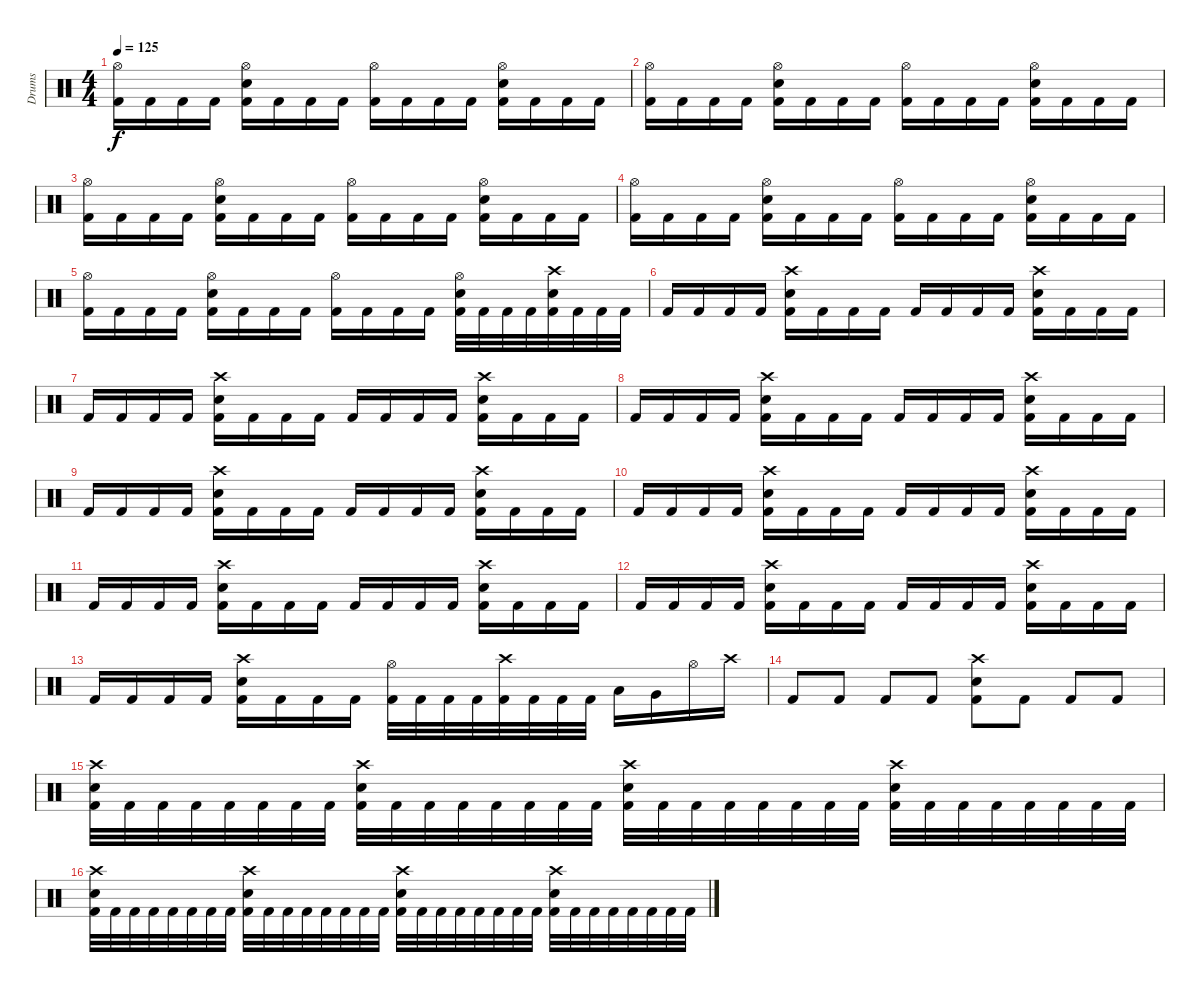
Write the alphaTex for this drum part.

\track ("Drums" "Drums") {instrument percussion}
\staff {score}
\articulation defaults
\ts (4 4)
\tempo 125
\clef neutral
\ks c
("Hi-Hat (open)" "Kick (hit) 2").16{dy f} "Kick (hit) 2".16 "Kick (hit) 2".16 "Kick (hit) 2".16 ("Hi-Hat (open)" "Kick (hit) 2" "Snare (hit) 2").16 "Kick (hit) 2".16 "Kick (hit) 2".16 "Kick (hit) 2".16 ("Hi-Hat (open)" "Kick (hit) 2").16 "Kick (hit) 2".16 "Kick (hit) 2".16 "Kick (hit) 2".16 ("Hi-Hat (open)" "Kick (hit) 2" "Snare (hit) 2").16 "Kick (hit) 2".16 "Kick (hit) 2".16 "Kick (hit) 2".16 |
("Hi-Hat (open)" "Kick (hit) 2").16 "Kick (hit) 2".16 "Kick (hit) 2".16 "Kick (hit) 2".16 ("Hi-Hat (open)" "Kick (hit) 2" "Snare (hit) 2").16 "Kick (hit) 2".16 "Kick (hit) 2".16 "Kick (hit) 2".16 ("Hi-Hat (open)" "Kick (hit) 2").16 "Kick (hit) 2".16 "Kick (hit) 2".16 "Kick (hit) 2".16 ("Hi-Hat (open)" "Kick (hit) 2" "Snare (hit) 2").16 "Kick (hit) 2".16 "Kick (hit) 2".16 "Kick (hit) 2".16 |
("Hi-Hat (open)" "Kick (hit) 2").16 "Kick (hit) 2".16 "Kick (hit) 2".16 "Kick (hit) 2".16 ("Hi-Hat (open)" "Kick (hit) 2" "Snare (hit) 2").16 "Kick (hit) 2".16 "Kick (hit) 2".16 "Kick (hit) 2".16 ("Hi-Hat (open)" "Kick (hit) 2").16 "Kick (hit) 2".16 "Kick (hit) 2".16 "Kick (hit) 2".16 ("Hi-Hat (open)" "Kick (hit) 2" "Snare (hit) 2").16 "Kick (hit) 2".16 "Kick (hit) 2".16 "Kick (hit) 2".16 |
("Hi-Hat (open)" "Kick (hit) 2").16 "Kick (hit) 2".16 "Kick (hit) 2".16 "Kick (hit) 2".16 ("Hi-Hat (open)" "Kick (hit) 2" "Snare (hit) 2").16 "Kick (hit) 2".16 "Kick (hit) 2".16 "Kick (hit) 2".16 ("Hi-Hat (open)" "Kick (hit) 2").16 "Kick (hit) 2".16 "Kick (hit) 2".16 "Kick (hit) 2".16 ("Hi-Hat (open)" "Kick (hit) 2" "Snare (hit) 2").16 "Kick (hit) 2".16 "Kick (hit) 2".16 "Kick (hit) 2".16 |
("Hi-Hat (open)" "Kick (hit) 2").16 "Kick (hit) 2".16 "Kick (hit) 2".16 "Kick (hit) 2".16 ("Hi-Hat (open)" "Kick (hit) 2" "Snare (hit) 2").16 "Kick (hit) 2".16 "Kick (hit) 2".16 "Kick (hit) 2".16 ("Hi-Hat (open)" "Kick (hit) 2").16 "Kick (hit) 2".16 "Kick (hit) 2".16 "Kick (hit) 2".16 ("Hi-Hat (open)" "Kick (hit) 2" "Snare (hit) 2").32 "Kick (hit) 2".32 "Kick (hit) 2".32 "Kick (hit) 2".32 ("Crash high (hit)" "Kick (hit) 2" "Snare (hit) 2").32 "Kick (hit) 2".32 "Kick (hit) 2".32 "Kick (hit) 2".32 |
"Kick (hit) 2".16 "Kick (hit) 2".16 "Kick (hit) 2".16 "Kick (hit) 2".16 ("Crash high (hit)" "Kick (hit) 2" "Snare (hit) 2").16 "Kick (hit) 2".16 "Kick (hit) 2".16 "Kick (hit) 2".16 "Kick (hit) 2".16 "Kick (hit) 2".16 "Kick (hit) 2".16 "Kick (hit) 2".16 ("Crash high (hit)" "Kick (hit) 2" "Snare (hit) 2").16 "Kick (hit) 2".16 "Kick (hit) 2".16 "Kick (hit) 2".16 |
"Kick (hit) 2".16 "Kick (hit) 2".16 "Kick (hit) 2".16 "Kick (hit) 2".16 ("Crash high (hit)" "Kick (hit) 2" "Snare (hit) 2").16 "Kick (hit) 2".16 "Kick (hit) 2".16 "Kick (hit) 2".16 "Kick (hit) 2".16 "Kick (hit) 2".16 "Kick (hit) 2".16 "Kick (hit) 2".16 ("Crash high (hit)" "Kick (hit) 2" "Snare (hit) 2").16 "Kick (hit) 2".16 "Kick (hit) 2".16 "Kick (hit) 2".16 |
"Kick (hit) 2".16 "Kick (hit) 2".16 "Kick (hit) 2".16 "Kick (hit) 2".16 ("Crash high (hit)" "Kick (hit) 2" "Snare (hit) 2").16 "Kick (hit) 2".16 "Kick (hit) 2".16 "Kick (hit) 2".16 "Kick (hit) 2".16 "Kick (hit) 2".16 "Kick (hit) 2".16 "Kick (hit) 2".16 ("Crash high (hit)" "Kick (hit) 2" "Snare (hit) 2").16 "Kick (hit) 2".16 "Kick (hit) 2".16 "Kick (hit) 2".16 |
"Kick (hit) 2".16 "Kick (hit) 2".16 "Kick (hit) 2".16 "Kick (hit) 2".16 ("Crash high (hit)" "Kick (hit) 2" "Snare (hit) 2").16 "Kick (hit) 2".16 "Kick (hit) 2".16 "Kick (hit) 2".16 "Kick (hit) 2".16 "Kick (hit) 2".16 "Kick (hit) 2".16 "Kick (hit) 2".16 ("Crash high (hit)" "Kick (hit) 2" "Snare (hit) 2").16 "Kick (hit) 2".16 "Kick (hit) 2".16 "Kick (hit) 2".16 |
"Kick (hit) 2".16 "Kick (hit) 2".16 "Kick (hit) 2".16 "Kick (hit) 2".16 ("Crash high (hit)" "Kick (hit) 2" "Snare (hit) 2").16 "Kick (hit) 2".16 "Kick (hit) 2".16 "Kick (hit) 2".16 "Kick (hit) 2".16 "Kick (hit) 2".16 "Kick (hit) 2".16 "Kick (hit) 2".16 ("Crash high (hit)" "Kick (hit) 2" "Snare (hit) 2").16 "Kick (hit) 2".16 "Kick (hit) 2".16 "Kick (hit) 2".16 |
"Kick (hit) 2".16 "Kick (hit) 2".16 "Kick (hit) 2".16 "Kick (hit) 2".16 ("Crash high (hit)" "Kick (hit) 2" "Snare (hit) 2").16 "Kick (hit) 2".16 "Kick (hit) 2".16 "Kick (hit) 2".16 "Kick (hit) 2".16 "Kick (hit) 2".16 "Kick (hit) 2".16 "Kick (hit) 2".16 ("Crash high (hit)" "Kick (hit) 2" "Snare (hit) 2").16 "Kick (hit) 2".16 "Kick (hit) 2".16 "Kick (hit) 2".16 |
"Kick (hit) 2".16 "Kick (hit) 2".16 "Kick (hit) 2".16 "Kick (hit) 2".16 ("Crash high (hit)" "Kick (hit) 2" "Snare (hit) 2").16 "Kick (hit) 2".16 "Kick (hit) 2".16 "Kick (hit) 2".16 "Kick (hit) 2".16 "Kick (hit) 2".16 "Kick (hit) 2".16 "Kick (hit) 2".16 ("Crash high (hit)" "Kick (hit) 2" "Snare (hit) 2").16 "Kick (hit) 2".16 "Kick (hit) 2".16 "Kick (hit) 2".16 |
"Kick (hit) 2".16 "Kick (hit) 2".16 "Kick (hit) 2".16 "Kick (hit) 2".16 ("Crash high (hit)" "Kick (hit) 2" "Snare (hit) 2").16 "Kick (hit) 2".16 "Kick (hit) 2".16 "Kick (hit) 2".16 ("Hi-Hat (open)" "Kick (hit) 2").32 "Kick (hit) 2".32 "Kick (hit) 2".32 "Kick (hit) 2".32 ("Crash high (hit)" "Kick (hit) 2").32 "Kick (hit) 2".32 "Kick (hit) 2".32 "Kick (hit) 2".32 "Low Tom (hit)".16 "Very Low Tom (hit)".16 "Hi-Hat (open)".16 "Crash high (hit)".16 |
"Kick (hit) 2".8 "Kick (hit) 2".8 "Kick (hit) 2".8 "Kick (hit) 2".8 ("Kick (hit) 2" "Crash high (hit)" "Snare (hit) 2").8 "Kick (hit) 2".8 "Kick (hit) 2".8 "Kick (hit) 2".8 |
("Kick (hit) 2" "Crash high (hit)" "Snare (hit) 2").32 "Kick (hit) 2".32 "Kick (hit) 2".32 "Kick (hit) 2".32 "Kick (hit) 2".32 "Kick (hit) 2".32 "Kick (hit) 2".32 "Kick (hit) 2".32 ("Kick (hit) 2" "Crash high (hit)" "Snare (hit) 2").32 "Kick (hit) 2".32 "Kick (hit) 2".32 "Kick (hit) 2".32 "Kick (hit) 2".32 "Kick (hit) 2".32 "Kick (hit) 2".32 "Kick (hit) 2".32 ("Kick (hit) 2" "Crash high (hit)" "Snare (hit) 2").32 "Kick (hit) 2".32 "Kick (hit) 2".32 "Kick (hit) 2".32 "Kick (hit) 2".32 "Kick (hit) 2".32 "Kick (hit) 2".32 "Kick (hit) 2".32 ("Kick (hit) 2" "Crash high (hit)" "Snare (hit) 2").32 "Kick (hit) 2".32 "Kick (hit) 2".32 "Kick (hit) 2".32 "Kick (hit) 2".32 "Kick (hit) 2".32 "Kick (hit) 2".32 "Kick (hit) 2".32 |
("Kick (hit) 2" "Crash high (hit)" "Snare (hit) 2").32 "Kick (hit) 2".32 "Kick (hit) 2".32 "Kick (hit) 2".32 "Kick (hit) 2".32 "Kick (hit) 2".32 "Kick (hit) 2".32 "Kick (hit) 2".32 ("Kick (hit) 2" "Crash high (hit)" "Snare (hit) 2").32 "Kick (hit) 2".32 "Kick (hit) 2".32 "Kick (hit) 2".32 "Kick (hit) 2".32 "Kick (hit) 2".32 "Kick (hit) 2".32 "Kick (hit) 2".32 ("Kick (hit) 2" "Crash high (hit)" "Snare (hit) 2").32 "Kick (hit) 2".32 "Kick (hit) 2".32 "Kick (hit) 2".32 "Kick (hit) 2".32 "Kick (hit) 2".32 "Kick (hit) 2".32 "Kick (hit) 2".32 ("Kick (hit) 2" "Crash high (hit)" "Snare (hit) 2").32 "Kick (hit) 2".32 "Kick (hit) 2".32 "Kick (hit) 2".32 "Kick (hit) 2".32 "Kick (hit) 2".32 "Kick (hit) 2".32 "Kick (hit) 2".32
